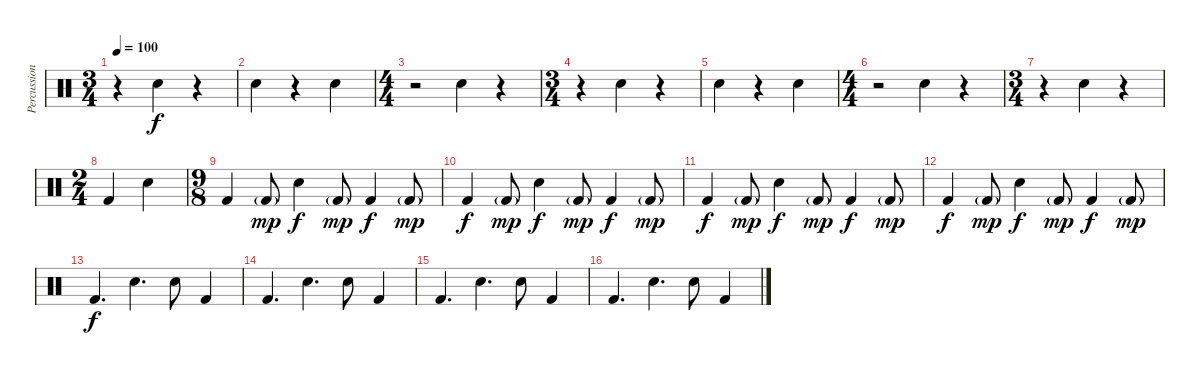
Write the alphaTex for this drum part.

\track ("Percussion" "Percussion") {mute instrument percussion}
\staff {score}
\articulation defaults
\ts (3 4)
\tempo 100
\clef neutral
\ks c
r.4{dy f} "Electric Snare (hit)".4 r.4 |
"Electric Snare (hit)".4 r.4 "Electric Snare (hit)".4 |
\ts (4 4)
r.2 "Electric Snare (hit)".4 r.4 |
\ts (3 4)
r.4 "Electric Snare (hit)".4 r.4 |
"Electric Snare (hit)".4 r.4 "Electric Snare (hit)".4 |
\ts (4 4)
r.2 "Electric Snare (hit)".4 r.4 |
\ts (3 4)
r.4 "Electric Snare (hit)".4 r.4 |
\ts (2 4)
"Kick (hit) 2".4 "Electric Snare (hit)".4 |
\ts (9 8)
"Kick (hit) 2".4 "Kick (hit) 2"{g}.8{dy mp} "Electric Snare (hit)".4{dy f} "Kick (hit) 2"{g}.8{dy mp} "Kick (hit) 2".4{dy f} "Kick (hit) 2"{g}.8{dy mp} |
"Kick (hit) 2".4{dy f} "Kick (hit) 2"{g}.8{dy mp} "Electric Snare (hit)".4{dy f} "Kick (hit) 2"{g}.8{dy mp} "Kick (hit) 2".4{dy f} "Kick (hit) 2"{g}.8{dy mp} |
"Kick (hit) 2".4{dy f} "Kick (hit) 2"{g}.8{dy mp} "Electric Snare (hit)".4{dy f} "Kick (hit) 2"{g}.8{dy mp} "Kick (hit) 2".4{dy f} "Kick (hit) 2"{g}.8{dy mp} |
"Kick (hit) 2".4{dy f} "Kick (hit) 2"{g}.8{dy mp} "Electric Snare (hit)".4{dy f} "Kick (hit) 2"{g}.8{dy mp} "Kick (hit) 2".4{dy f} "Kick (hit) 2"{g}.8{dy mp} |
"Kick (hit) 2".4{d dy f} "Electric Snare (hit)".4{d} "Electric Snare (hit)".8 "Kick (hit) 2".4 |
"Kick (hit) 2".4{d} "Electric Snare (hit)".4{d} "Electric Snare (hit)".8 "Kick (hit) 2".4 |
"Kick (hit) 2".4{d} "Electric Snare (hit)".4{d} "Electric Snare (hit)".8 "Kick (hit) 2".4 |
"Kick (hit) 2".4{d} "Electric Snare (hit)".4{d} "Electric Snare (hit)".8 "Kick (hit) 2".4
